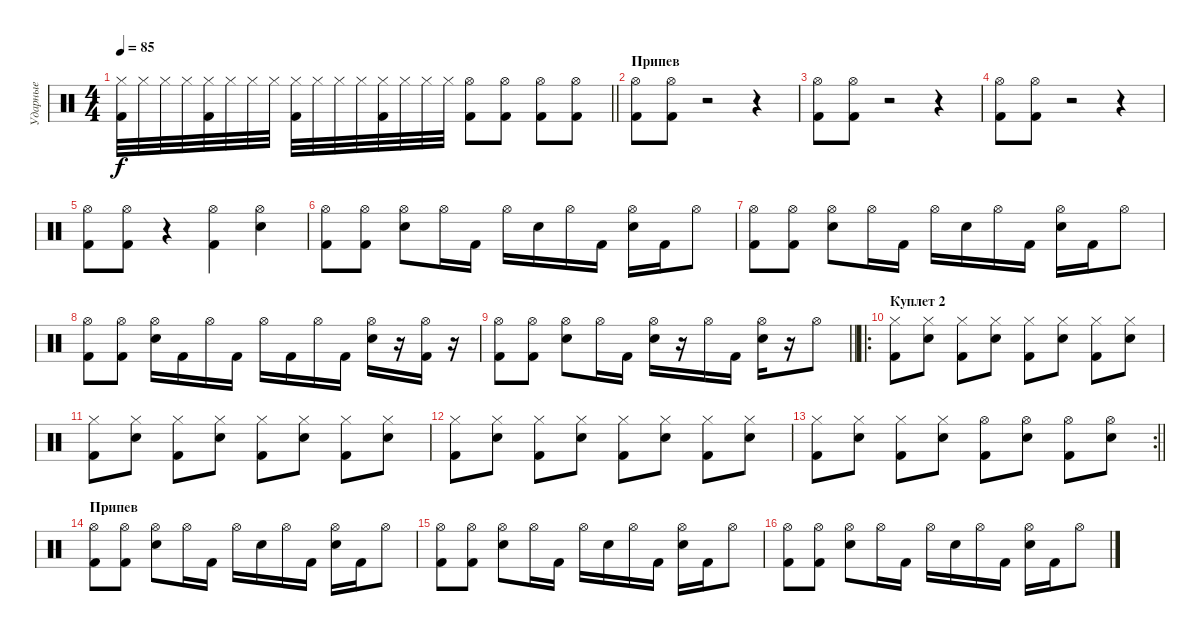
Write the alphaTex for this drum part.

\track ("Ударные" "Ударные") {instrument percussion}
\staff {score}
\articulation defaults
\ts (4 4)
\tempo 85
\clef neutral
\barLineRight lightlight
\ks c
("Hi-Hat (closed)" "Kick (hit) 2").32{dy f} "Hi-Hat (closed)".32 "Hi-Hat (closed)".32 "Hi-Hat (closed)".32 ("Hi-Hat (closed)" "Kick (hit) 2").32 "Hi-Hat (closed)".32 "Hi-Hat (closed)".32 "Hi-Hat (closed)".32 ("Hi-Hat (closed)" "Kick (hit) 2").32 "Hi-Hat (closed)".32 "Hi-Hat (closed)".32 "Hi-Hat (closed)".32 ("Hi-Hat (closed)" "Kick (hit) 2").32 "Hi-Hat (closed)".32 "Hi-Hat (closed)".32 "Hi-Hat (closed)".32 ("Hi-Hat (open)" "Kick (hit) 2").8 ("Hi-Hat (open)" "Kick (hit) 2").8 ("Hi-Hat (open)" "Kick (hit) 2").8 ("Hi-Hat (open)" "Kick (hit) 2").8 |
\section ("" "Припев")
("Hi-Hat (open)" "Kick (hit) 2").8 ("Hi-Hat (open)" "Kick (hit) 2").8 r.2 r.4 |
("Hi-Hat (open)" "Kick (hit) 2").8 ("Hi-Hat (open)" "Kick (hit) 2").8 r.2 r.4 |
("Hi-Hat (open)" "Kick (hit) 2").8 ("Hi-Hat (open)" "Kick (hit) 2").8 r.2 r.4 |
("Hi-Hat (open)" "Kick (hit) 2").8 ("Hi-Hat (open)" "Kick (hit) 2").8 r.4 ("Hi-Hat (open)" "Kick (hit) 2").4 ("Hi-Hat (open)" "Electric Snare (hit)").4 |
("Hi-Hat (open)" "Kick (hit) 2").8 ("Hi-Hat (open)" "Kick (hit) 2").8 ("Hi-Hat (open)" "Electric Snare (hit)").8 "Hi-Hat (open)".16 "Kick (hit) 2".16 "Hi-Hat (open)".16 "Electric Snare (hit)".16 "Hi-Hat (open)".16 "Kick (hit) 2".16 ("Hi-Hat (open)" "Electric Snare (hit)").16 "Kick (hit) 2".16 "Hi-Hat (open)".8 |
("Hi-Hat (open)" "Kick (hit) 2").8 ("Hi-Hat (open)" "Kick (hit) 2").8 ("Hi-Hat (open)" "Electric Snare (hit)").8 "Hi-Hat (open)".16 "Kick (hit) 2".16 "Hi-Hat (open)".16 "Electric Snare (hit)".16 "Hi-Hat (open)".16 "Kick (hit) 2".16 ("Hi-Hat (open)" "Electric Snare (hit)").16 "Kick (hit) 2".16 "Hi-Hat (open)".8 |
("Hi-Hat (open)" "Kick (hit) 2").8 ("Hi-Hat (open)" "Kick (hit) 2").8 ("Hi-Hat (open)" "Electric Snare (hit)").16 "Kick (hit) 2".16 "Hi-Hat (open)".16 "Kick (hit) 2".16 "Hi-Hat (open)".16 "Kick (hit) 2".16 "Hi-Hat (open)".16 "Kick (hit) 2".16 ("Hi-Hat (open)" "Electric Snare (hit)").16 r.16 ("Hi-Hat (open)" "Kick (hit) 2").16 r.16 |
\barLineRight lightlight
("Hi-Hat (open)" "Kick (hit) 2").8 ("Hi-Hat (open)" "Kick (hit) 2").8 ("Hi-Hat (open)" "Electric Snare (hit)").8 "Hi-Hat (open)".16 "Kick (hit) 2".16 ("Hi-Hat (open)" "Electric Snare (hit)").16 r.16 "Hi-Hat (open)".16 "Kick (hit) 2".16 ("Hi-Hat (open)" "Electric Snare (hit)").16 r.16 "Hi-Hat (open)".8 |
\ro
\section ("" "Куплет 2")
("Hi-Hat (closed)" "Kick (hit) 2").8 ("Hi-Hat (closed)" "Electric Snare (hit)").8 ("Hi-Hat (closed)" "Kick (hit) 2").8 ("Hi-Hat (closed)" "Electric Snare (hit)").8 ("Hi-Hat (closed)" "Kick (hit) 2").8 ("Hi-Hat (closed)" "Electric Snare (hit)").8 ("Hi-Hat (closed)" "Kick (hit) 2").8 ("Hi-Hat (closed)" "Electric Snare (hit)").8 |
("Hi-Hat (closed)" "Kick (hit) 2").8 ("Hi-Hat (closed)" "Electric Snare (hit)").8 ("Hi-Hat (closed)" "Kick (hit) 2").8 ("Hi-Hat (closed)" "Electric Snare (hit)").8 ("Hi-Hat (closed)" "Kick (hit) 2").8 ("Hi-Hat (closed)" "Electric Snare (hit)").8 ("Hi-Hat (closed)" "Kick (hit) 2").8 ("Hi-Hat (closed)" "Electric Snare (hit)").8 |
("Hi-Hat (closed)" "Kick (hit) 2").8 ("Hi-Hat (closed)" "Electric Snare (hit)").8 ("Hi-Hat (closed)" "Kick (hit) 2").8 ("Hi-Hat (closed)" "Electric Snare (hit)").8 ("Hi-Hat (closed)" "Kick (hit) 2").8 ("Hi-Hat (closed)" "Electric Snare (hit)").8 ("Hi-Hat (closed)" "Kick (hit) 2").8 ("Hi-Hat (closed)" "Electric Snare (hit)").8 |
\rc 2
\barLineRight lightlight
("Hi-Hat (closed)" "Kick (hit) 2").8 ("Hi-Hat (closed)" "Electric Snare (hit)").8 ("Hi-Hat (closed)" "Kick (hit) 2").8 ("Hi-Hat (closed)" "Electric Snare (hit)").8 ("Hi-Hat (open)" "Kick (hit) 2").8 ("Hi-Hat (open)" "Electric Snare (hit)").8 ("Hi-Hat (open)" "Kick (hit) 2").8 ("Hi-Hat (open)" "Electric Snare (hit)").8 |
\section ("" "Припев")
("Hi-Hat (open)" "Kick (hit) 2").8 ("Hi-Hat (open)" "Kick (hit) 2").8 ("Hi-Hat (open)" "Electric Snare (hit)").8 "Hi-Hat (open)".16 "Kick (hit) 2".16 "Hi-Hat (open)".16 "Electric Snare (hit)".16 "Hi-Hat (open)".16 "Kick (hit) 2".16 ("Hi-Hat (open)" "Electric Snare (hit)").16 "Kick (hit) 2".16 "Hi-Hat (open)".8 |
("Hi-Hat (open)" "Kick (hit) 2").8 ("Hi-Hat (open)" "Kick (hit) 2").8 ("Hi-Hat (open)" "Electric Snare (hit)").8 "Hi-Hat (open)".16 "Kick (hit) 2".16 "Hi-Hat (open)".16 "Electric Snare (hit)".16 "Hi-Hat (open)".16 "Kick (hit) 2".16 ("Hi-Hat (open)" "Electric Snare (hit)").16 "Kick (hit) 2".16 "Hi-Hat (open)".8 |
("Hi-Hat (open)" "Kick (hit) 2").8 ("Hi-Hat (open)" "Kick (hit) 2").8 ("Hi-Hat (open)" "Electric Snare (hit)").8 "Hi-Hat (open)".16 "Kick (hit) 2".16 "Hi-Hat (open)".16 "Electric Snare (hit)".16 "Hi-Hat (open)".16 "Kick (hit) 2".16 ("Hi-Hat (open)" "Electric Snare (hit)").16 "Kick (hit) 2".16 "Hi-Hat (open)".8
